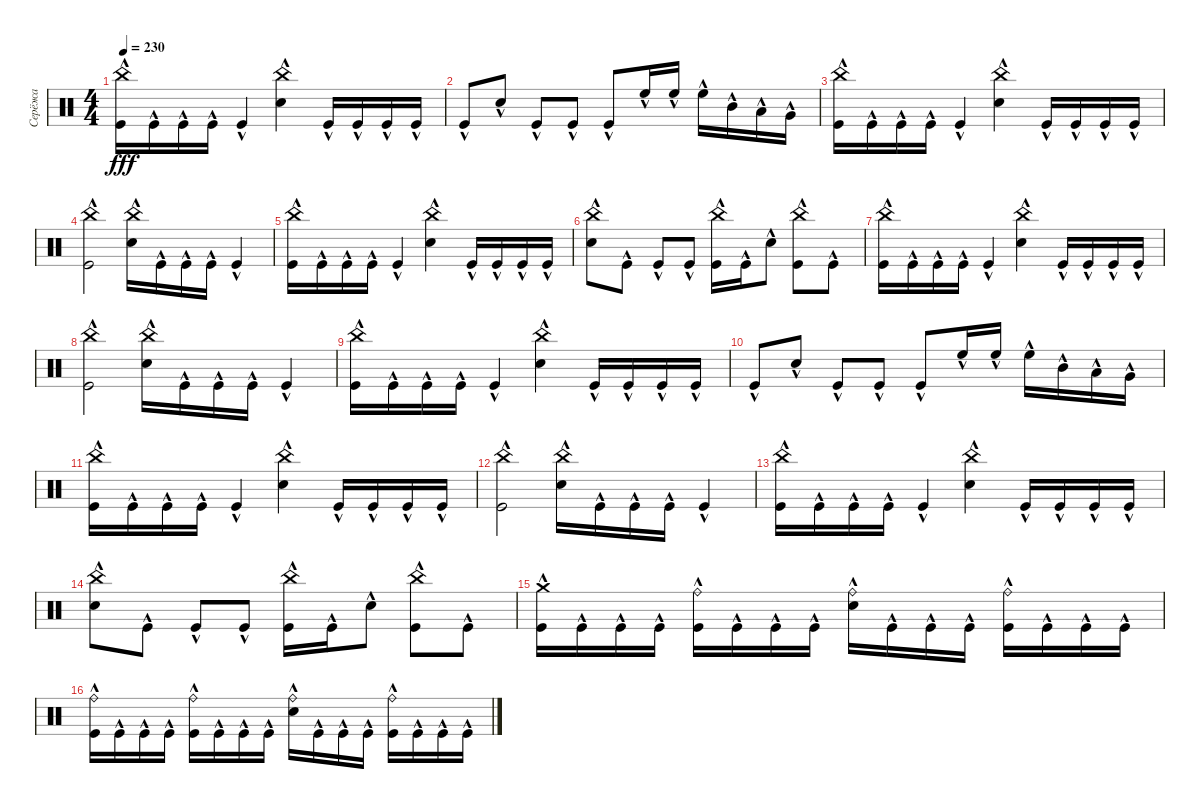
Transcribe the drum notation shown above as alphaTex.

\track ("Серёжа" "Серёжа") {instrument percussion}
\staff {score}
\articulation defaults
\ts (4 4)
\tempo 230
\clef neutral
\ks c
("China (hit)" "Kick (hit)"{hac}).16{dy fff} "Kick (hit)"{hac}.16 "Kick (hit)"{hac}.16 "Kick (hit)"{hac}.16 "Kick (hit)"{hac}.4 ("China (hit)" "Snare (hit) 2"{hac}).4 "Kick (hit)"{hac}.16 "Kick (hit)"{hac}.16 "Kick (hit)"{hac}.16 "Kick (hit)"{hac}.16 |
"Kick (hit)"{hac}.8 "Snare (hit) 2"{hac}.8 "Kick (hit)"{hac}.8 "Kick (hit)"{hac}.8 "Kick (hit)"{hac}.8 "High Floor Tom (hit)"{hac}.16 "High Floor Tom (hit)"{hac}.16 "High Floor Tom (hit)"{hac}.16 "Mid Tom (hit)"{hac}.16 "Low Tom (hit)"{hac}.16 "Very Low Tom (hit)"{hac}.16 |
("China (hit)" "Kick (hit)"{hac}).16 "Kick (hit)"{hac}.16 "Kick (hit)"{hac}.16 "Kick (hit)"{hac}.16 "Kick (hit)"{hac}.4 ("China (hit)" "Snare (hit) 2"{hac}).4 "Kick (hit)"{hac}.16 "Kick (hit)"{hac}.16 "Kick (hit)"{hac}.16 "Kick (hit)"{hac}.16 |
("China (hit)" "Kick (hit)"{hac}).2 ("China (hit)" "Snare (hit) 2"{hac}).16 "Kick (hit)"{hac}.16 "Kick (hit)"{hac}.16 "Kick (hit)"{hac}.16 "Kick (hit)"{hac}.4 |
("China (hit)" "Kick (hit)"{hac}).16 "Kick (hit)"{hac}.16 "Kick (hit)"{hac}.16 "Kick (hit)"{hac}.16 "Kick (hit)"{hac}.4 ("China (hit)" "Snare (hit) 2"{hac}).4 "Kick (hit)"{hac}.16 "Kick (hit)"{hac}.16 "Kick (hit)"{hac}.16 "Kick (hit)"{hac}.16 |
("China (hit)" "Snare (hit) 2"{hac}).8 "Kick (hit)"{hac}.8 "Kick (hit)"{hac}.8 "Kick (hit)"{hac}.8 ("China (hit)" "Kick (hit)"{hac}).16 "Kick (hit)"{hac}.16 "Snare (hit) 2"{hac}.8 ("China (hit)" "Kick (hit)"{hac}).8 "Kick (hit)"{hac}.8 |
("China (hit)" "Kick (hit)"{hac}).16 "Kick (hit)"{hac}.16 "Kick (hit)"{hac}.16 "Kick (hit)"{hac}.16 "Kick (hit)"{hac}.4 ("China (hit)" "Snare (hit) 2"{hac}).4 "Kick (hit)"{hac}.16 "Kick (hit)"{hac}.16 "Kick (hit)"{hac}.16 "Kick (hit)"{hac}.16 |
("China (hit)" "Kick (hit)"{hac}).2 ("China (hit)" "Snare (hit) 2"{hac}).16 "Kick (hit)"{hac}.16 "Kick (hit)"{hac}.16 "Kick (hit)"{hac}.16 "Kick (hit)"{hac}.4 |
("China (hit)" "Kick (hit)"{hac}).16 "Kick (hit)"{hac}.16 "Kick (hit)"{hac}.16 "Kick (hit)"{hac}.16 "Kick (hit)"{hac}.4 ("China (hit)" "Snare (hit) 2"{hac}).4 "Kick (hit)"{hac}.16 "Kick (hit)"{hac}.16 "Kick (hit)"{hac}.16 "Kick (hit)"{hac}.16 |
"Kick (hit)"{hac}.8 "Snare (hit) 2"{hac}.8 "Kick (hit)"{hac}.8 "Kick (hit)"{hac}.8 "Kick (hit)"{hac}.8 "High Floor Tom (hit)"{hac}.16 "High Floor Tom (hit)"{hac}.16 "High Floor Tom (hit)"{hac}.16 "Mid Tom (hit)"{hac}.16 "Low Tom (hit)"{hac}.16 "Very Low Tom (hit)"{hac}.16 |
("China (hit)" "Kick (hit)"{hac}).16 "Kick (hit)"{hac}.16 "Kick (hit)"{hac}.16 "Kick (hit)"{hac}.16 "Kick (hit)"{hac}.4 ("China (hit)" "Snare (hit) 2"{hac}).4 "Kick (hit)"{hac}.16 "Kick (hit)"{hac}.16 "Kick (hit)"{hac}.16 "Kick (hit)"{hac}.16 |
("China (hit)" "Kick (hit)"{hac}).2 ("China (hit)" "Snare (hit) 2"{hac}).16 "Kick (hit)"{hac}.16 "Kick (hit)"{hac}.16 "Kick (hit)"{hac}.16 "Kick (hit)"{hac}.4 |
("China (hit)" "Kick (hit)"{hac}).16 "Kick (hit)"{hac}.16 "Kick (hit)"{hac}.16 "Kick (hit)"{hac}.16 "Kick (hit)"{hac}.4 ("China (hit)" "Snare (hit) 2"{hac}).4 "Kick (hit)"{hac}.16 "Kick (hit)"{hac}.16 "Kick (hit)"{hac}.16 "Kick (hit)"{hac}.16 |
("China (hit)" "Snare (hit) 2"{hac}).8 "Kick (hit)"{hac}.8 "Kick (hit)"{hac}.8 "Kick (hit)"{hac}.8 ("China (hit)" "Kick (hit)"{hac}).16 "Kick (hit)"{hac}.16 "Snare (hit) 2"{hac}.8 ("China (hit)" "Kick (hit)"{hac}).8 "Kick (hit)"{hac}.8 |
("Crash medium (hit)"{hac} "Kick (hit)"{hac}).16 "Kick (hit)"{hac}.16 "Kick (hit)"{hac}.16 "Kick (hit)"{hac}.16 ("Ride (bell)" "Kick (hit)"{hac}).16 "Kick (hit)"{hac}.16 "Kick (hit)"{hac}.16 "Kick (hit)"{hac}.16 ("Ride (bell)" "Snare (hit) 2"{hac}).16 "Kick (hit)"{hac}.16 "Kick (hit)"{hac}.16 "Kick (hit)"{hac}.16 ("Ride (bell)" "Kick (hit)"{hac}).16 "Kick (hit)"{hac}.16 "Kick (hit)"{hac}.16 "Kick (hit)"{hac}.16 |
("Ride (bell)" "Kick (hit)"{hac}).16 "Kick (hit)"{hac}.16 "Kick (hit)"{hac}.16 "Kick (hit)"{hac}.16 ("Ride (bell)" "Kick (hit)"{hac}).16 "Kick (hit)"{hac}.16 "Kick (hit)"{hac}.16 "Kick (hit)"{hac}.16 ("Ride (bell)" "Snare (hit) 2"{hac}).16 "Kick (hit)"{hac}.16 "Kick (hit)"{hac}.16 "Kick (hit)"{hac}.16 ("Ride (bell)" "Kick (hit)"{hac}).16 "Kick (hit)"{hac}.16 "Kick (hit)"{hac}.16 "Kick (hit)"{hac}.16
